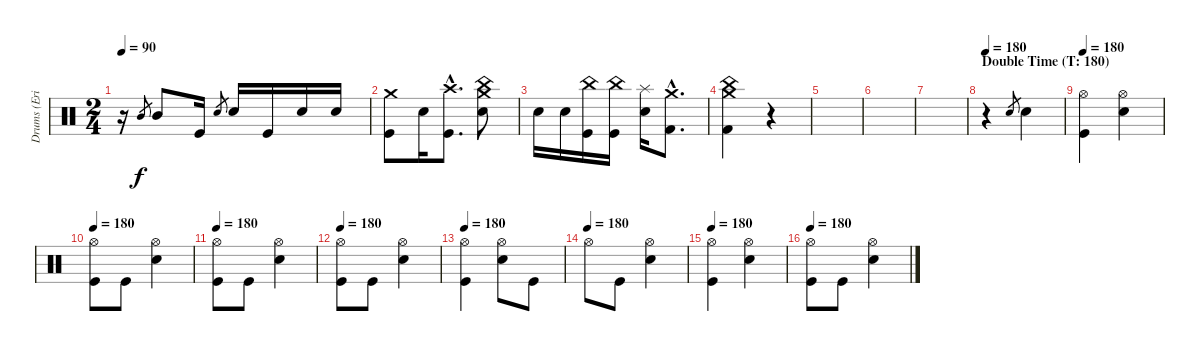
\track ("Drums (Eric Singer)" "Drums (Eri") {instrument percussion}
\staff {score}
\articulation defaults
\ts (2 4)
\tempo 90
\clef neutral
\ks c
r.16{dy mp} "Mid Tom (hit)".8{gr dy f} "Mid Tom (hit)".8 "Kick (hit)".16 "Electric Snare (hit)".8{gr} "Electric Snare (hit)".16 "Kick (hit)".16 "Electric Snare (hit)".16 "Electric Snare (hit)".16 |
("Crash medium (hit)" "Kick (hit)").8 "Electric Snare (hit)".16 ("Crash high (hit)"{hac} "Kick (hit)"{hac}).8{d} ("Crash medium (hit)" "China (hit)" "Electric Snare (hit)").8 |
"Electric Snare (hit)".16 "Electric Snare (hit)".16 ("China (hit)" "Kick (hit)").16 ("China (hit)" "Kick (hit)").16 ("Splash (hit)" "Electric Snare (hit)").16 ("Crash medium (hit)"{hac} "Kick (hit) 2"{hac}).8{d} |
("China (hit)" "Crash medium (hit)" "Kick (hit) 2").4 r.4 |
|
|
|
\section ("" "Double Time (T: 180)")
\tempo 180
r.4 "Electric Snare (hit)".8{gr} "Electric Snare (hit)".4 |
\tempo 180
("Hi-Hat (open)" "Kick (hit)").4 ("Hi-Hat (open)" "Electric Snare (hit)").4 |
\tempo 180
("Hi-Hat (open)" "Kick (hit)").8 "Kick (hit)".8 ("Hi-Hat (open)" "Electric Snare (hit)").4 |
\tempo 180
("Hi-Hat (open)" "Kick (hit)").8 "Kick (hit)".8 ("Hi-Hat (open)" "Electric Snare (hit)").4 |
\tempo 180
("Hi-Hat (open)" "Kick (hit)").8 "Kick (hit)".8 ("Hi-Hat (open)" "Electric Snare (hit)").4 |
\tempo 180
("Hi-Hat (open)" "Kick (hit)").4 ("Hi-Hat (open)" "Electric Snare (hit)").8 "Kick (hit)".8 |
\tempo (180)
"Hi-Hat (open)".8 "Kick (hit)".8 ("Hi-Hat (open)" "Electric Snare (hit)").4 |
\tempo 180
("Hi-Hat (open)" "Kick (hit)").4 ("Hi-Hat (open)" "Electric Snare (hit)").4 |
\tempo 180
("Hi-Hat (open)" "Kick (hit)").8 "Kick (hit)".8 ("Hi-Hat (open)" "Electric Snare (hit)").4
